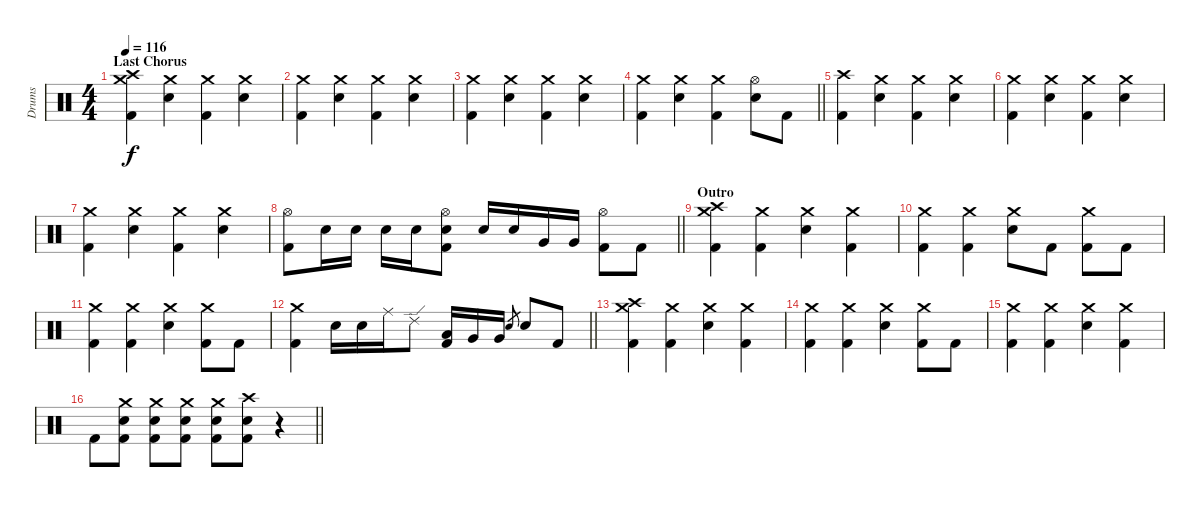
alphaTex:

\track ("Drums" "Drums") {instrument percussion}
\staff {score}
\articulation defaults
\ts (4 4)
\section ("" "Last Chorus")
\tempo 116
\clef neutral
\ks c
("Crash high (hit)" "Crash medium (hit)" "Kick (hit) 2").4{dy f} ("Crash medium (hit)" "Electric Snare (hit)").4 ("Crash medium (hit)" "Kick (hit) 2").4 ("Crash medium (hit)" "Electric Snare (hit)").4 |
("Crash medium (hit)" "Kick (hit) 2").4 ("Crash medium (hit)" "Electric Snare (hit)").4 ("Crash medium (hit)" "Kick (hit) 2").4 ("Crash medium (hit)" "Electric Snare (hit)").4 |
("Crash medium (hit)" "Kick (hit) 2").4 ("Crash medium (hit)" "Electric Snare (hit)").4 ("Crash medium (hit)" "Kick (hit) 2").4 ("Crash medium (hit)" "Electric Snare (hit)").4 |
\barLineRight lightlight
("Crash medium (hit)" "Kick (hit) 2").4 ("Crash medium (hit)" "Electric Snare (hit)").4 ("Crash medium (hit)" "Kick (hit) 2").4 ("Hi-Hat (open)" "Electric Snare (hit)").8 "Kick (hit) 2".8 |
("Crash high (hit)" "Kick (hit) 2").4 ("Crash medium (hit)" "Electric Snare (hit)").4 ("Crash medium (hit)" "Kick (hit) 2").4 ("Crash medium (hit)" "Electric Snare (hit)").4 |
("Crash medium (hit)" "Kick (hit) 2").4 ("Crash medium (hit)" "Electric Snare (hit)").4 ("Crash medium (hit)" "Kick (hit) 2").4 ("Crash medium (hit)" "Electric Snare (hit)").4 |
("Crash medium (hit)" "Kick (hit) 2").4 ("Crash medium (hit)" "Electric Snare (hit)").4 ("Crash medium (hit)" "Kick (hit) 2").4 ("Crash medium (hit)" "Electric Snare (hit)").4 |
\barLineRight lightlight
("Hi-Hat (open)" "Kick (hit) 2").8 "Electric Snare (hit)".16 "Electric Snare (hit)".16 "Electric Snare (hit)".16 "Electric Snare (hit)".16 ("Hi-Hat (open)" "Electric Snare (hit)" "Kick (hit) 2").8 "Electric Snare (hit)".16 "Electric Snare (hit)".16 "Very Low Tom (hit)".16 "Very Low Tom (hit)".16 ("Hi-Hat (open)" "Kick (hit) 2").8 "Kick (hit) 2".8 |
\section ("" "Outro")
("Crash high (hit)" "Crash medium (hit)" "Kick (hit) 2").4 ("Crash medium (hit)" "Kick (hit) 2").4 ("Crash medium (hit)" "Electric Snare (hit)").4 ("Crash medium (hit)" "Kick (hit) 2").4 |
("Crash medium (hit)" "Kick (hit) 2").4 ("Crash medium (hit)" "Kick (hit) 2").4 ("Crash medium (hit)" "Electric Snare (hit)").8 "Kick (hit) 2".8 ("Crash medium (hit)" "Kick (hit) 2").8 "Kick (hit) 2".8 |
("Crash medium (hit)" "Kick (hit) 2").4 ("Crash medium (hit)" "Kick (hit) 2").4 ("Crash medium (hit)" "Electric Snare (hit)").4 ("Crash medium (hit)" "Kick (hit) 2").8 "Kick (hit) 2".8 |
\barLineRight lightlight
("Crash medium (hit)" "Kick (hit) 2").4 "Electric Snare (hit)".16 "Electric Snare (hit)".16 "Ride (middle)".16 "Ride (edge) 2".8 ("Low Floor Tom (hit)" "Kick (hit) 2").16 "Very Low Tom (hit)".16 "Very Low Tom (hit)".16 "Electric Snare (hit)".8{gr} "Electric Snare (hit)".8 "Kick (hit) 2".8 |
("Crash high (hit)" "Crash medium (hit)" "Kick (hit) 2").4 ("Crash medium (hit)" "Kick (hit) 2").4 ("Crash medium (hit)" "Electric Snare (hit)").4 ("Crash medium (hit)" "Kick (hit) 2").4 |
("Crash medium (hit)" "Kick (hit) 2").4 ("Crash medium (hit)" "Kick (hit) 2").4 ("Crash medium (hit)" "Electric Snare (hit)").4 ("Crash medium (hit)" "Kick (hit) 2").8 "Kick (hit) 2".8 |
("Crash medium (hit)" "Kick (hit) 2").4 ("Crash medium (hit)" "Kick (hit) 2").4 ("Crash medium (hit)" "Electric Snare (hit)").4 ("Crash medium (hit)" "Kick (hit) 2").4 |
\barLineRight lightlight "Kick (hit) 2".8
("Crash medium (hit)" "Electric Snare (hit)" "Kick (hit) 2").8 ("Crash medium (hit)" "Electric Snare (hit)" "Kick (hit) 2").8 ("Crash medium (hit)" "Electric Snare (hit)" "Kick (hit) 2").8 ("Crash medium (hit)" "Electric Snare (hit)" "Kick (hit) 2").8 ("Crash high (hit)" "Electric Snare (hit)" "Kick (hit) 2").8 r.4
